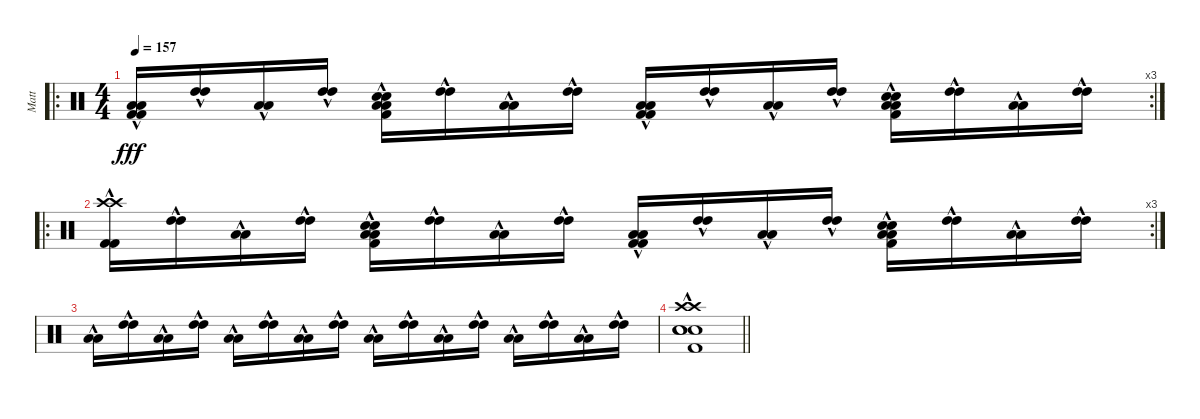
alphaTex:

\track ("Matt" "Matt") {instrument percussion}
\staff {score}
\articulation defaults
\ro
\rc 3
\ts (4 4)
\tempo 157
\clef neutral
\ks c
("Low Tom (hit)"{hac} "Low Tom (hit)"{hac} "Kick (hit) 2"{hac} "Kick (hit) 2"{hac}).16{dy fff} ("High Tom (hit)"{hac} "High Tom (hit)"{hac}).16 ("Low Tom (hit)"{hac} "Low Tom (hit)"{hac}).16 ("High Tom (hit)"{hac} "High Tom (hit)"{hac}).16 ("Low Tom (hit)"{hac} "Low Tom (hit)"{hac} "Snare (hit) 2"{hac} "Kick (hit) 2"{hac} "Snare (hit) 2"{hac}).16 ("High Tom (hit)"{hac} "High Tom (hit)"{hac}).16 ("Low Tom (hit)"{hac} "Low Tom (hit)"{hac}).16 ("High Tom (hit)"{hac} "High Tom (hit)"{hac}).16 ("Low Tom (hit)"{hac} "Low Tom (hit)"{hac} "Kick (hit) 2"{hac} "Kick (hit) 2"{hac}).16 ("High Tom (hit)"{hac} "High Tom (hit)"{hac}).16 ("Low Tom (hit)"{hac} "Low Tom (hit)"{hac}).16 ("High Tom (hit)"{hac} "High Tom (hit)"{hac}).16 ("Low Tom (hit)"{hac} "Low Tom (hit)"{hac} "Snare (hit) 2"{hac} "Kick (hit) 2"{hac} "Snare (hit) 2"{hac}).16 ("High Tom (hit)"{hac} "High Tom (hit)"{hac}).16 ("Low Tom (hit)"{hac} "Low Tom (hit)"{hac}).16 ("High Tom (hit)"{hac} "High Tom (hit)"{hac}).16 |
\ro
\rc 3
("Crash high (hit)"{hac} "Crash high (hit)"{hac} "Kick (hit) 2"{hac} "Kick (hit) 2"{hac}).16 ("High Tom (hit)"{hac} "High Tom (hit)"{hac}).16 ("Low Tom (hit)"{hac} "Low Tom (hit)"{hac}).16 ("High Tom (hit)"{hac} "High Tom (hit)"{hac}).16 ("Low Tom (hit)"{hac} "Low Tom (hit)"{hac} "Snare (hit) 2"{hac} "Kick (hit) 2"{hac} "Snare (hit) 2"{hac}).16 ("High Tom (hit)"{hac} "High Tom (hit)"{hac}).16 ("Low Tom (hit)"{hac} "Low Tom (hit)"{hac}).16 ("High Tom (hit)"{hac} "High Tom (hit)"{hac}).16 ("Low Tom (hit)"{hac} "Low Tom (hit)"{hac} "Kick (hit) 2"{hac} "Kick (hit) 2"{hac}).16 ("High Tom (hit)"{hac} "High Tom (hit)"{hac}).16 ("Low Tom (hit)"{hac} "Low Tom (hit)"{hac}).16 ("High Tom (hit)"{hac} "High Tom (hit)"{hac}).16 ("Low Tom (hit)"{hac} "Low Tom (hit)"{hac} "Snare (hit) 2"{hac} "Kick (hit) 2"{hac} "Snare (hit) 2"{hac}).16 ("High Tom (hit)"{hac} "High Tom (hit)"{hac}).16 ("Low Tom (hit)"{hac} "Low Tom (hit)"{hac}).16 ("High Tom (hit)"{hac} "High Tom (hit)"{hac}).16 |
("Low Tom (hit)"{hac} "Low Tom (hit)"{hac}).16 ("High Tom (hit)"{hac} "High Tom (hit)"{hac}).16 ("Low Tom (hit)"{hac} "Low Tom (hit)"{hac}).16 ("High Tom (hit)"{hac} "High Tom (hit)"{hac}).16 ("Low Tom (hit)"{hac} "Low Tom (hit)"{hac}).16 ("High Tom (hit)"{hac} "High Tom (hit)"{hac}).16 ("Low Tom (hit)"{hac} "Low Tom (hit)"{hac}).16 ("High Tom (hit)"{hac} "High Tom (hit)"{hac}).16 ("Low Tom (hit)"{hac} "Low Tom (hit)"{hac}).16 ("High Tom (hit)"{hac} "High Tom (hit)"{hac}).16 ("Low Tom (hit)"{hac} "Low Tom (hit)"{hac}).16 ("High Tom (hit)"{hac} "High Tom (hit)"{hac}).16 ("Low Tom (hit)"{hac} "Low Tom (hit)"{hac}).16 ("High Tom (hit)"{hac} "High Tom (hit)"{hac}).16 ("Low Tom (hit)"{hac} "Low Tom (hit)"{hac}).16 ("High Tom (hit)"{hac} "High Tom (hit)"{hac}).16 |
\barLineRight lightlight
("Crash high (hit)"{hac} "Crash high (hit)"{hac} "Kick (hit) 2"{hac} "Snare (hit) 2"{hac} "Snare (hit) 2"{hac} "Snare (hit) 2"{hac}).1
